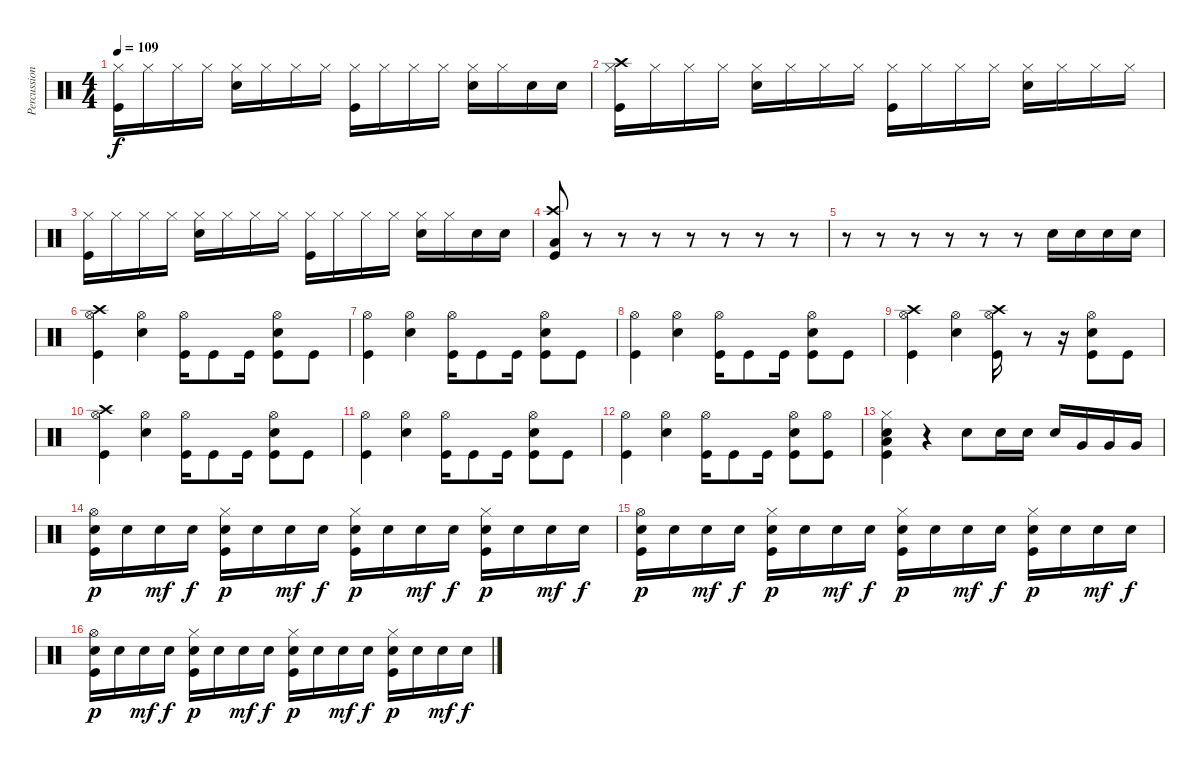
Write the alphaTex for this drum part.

\track ("Percussion" "Percussion") {instrument percussion}
\staff {score}
\articulation defaults
\ts (4 4)
\tempo 109
\clef neutral
\ks c
("Hi-Hat (closed)" "Kick (hit)").16{dy f} "Hi-Hat (closed)".16 "Hi-Hat (closed)".16 "Hi-Hat (closed)".16 ("Hi-Hat (closed)" "Electric Snare (hit)").16 "Hi-Hat (closed)".16 "Hi-Hat (closed)".16 "Hi-Hat (closed)".16 ("Hi-Hat (closed)" "Kick (hit)").16 "Hi-Hat (closed)".16 "Hi-Hat (closed)".16 "Hi-Hat (closed)".16 ("Hi-Hat (closed)" "Electric Snare (hit)").16 "Hi-Hat (closed)".16 "Electric Snare (hit)".16 "Electric Snare (hit)".16 |
("Crash high (hit)" "Hi-Hat (closed)" "Kick (hit)").16 "Hi-Hat (closed)".16 "Hi-Hat (closed)".16 "Hi-Hat (closed)".16 ("Hi-Hat (closed)" "Electric Snare (hit)").16 "Hi-Hat (closed)".16 "Hi-Hat (closed)".16 "Hi-Hat (closed)".16 ("Hi-Hat (closed)" "Kick (hit)").16 "Hi-Hat (closed)".16 "Hi-Hat (closed)".16 "Hi-Hat (closed)".16 ("Hi-Hat (closed)" "Electric Snare (hit)").16 "Hi-Hat (closed)".16 "Hi-Hat (closed)".16 "Hi-Hat (closed)".16 |
("Hi-Hat (closed)" "Kick (hit)").16 "Hi-Hat (closed)".16 "Hi-Hat (closed)".16 "Hi-Hat (closed)".16 ("Hi-Hat (closed)" "Electric Snare (hit)").16 "Hi-Hat (closed)".16 "Hi-Hat (closed)".16 "Hi-Hat (closed)".16 ("Hi-Hat (closed)" "Kick (hit)").16 "Hi-Hat (closed)".16 "Hi-Hat (closed)".16 "Hi-Hat (closed)".16 ("Hi-Hat (closed)" "Electric Snare (hit)").16 "Hi-Hat (closed)".16 "Electric Snare (hit)".16 "Electric Snare (hit)".16 |
("Crash high (hit)" "Low Floor Tom (hit)" "Kick (hit)").8 r.8 r.8 r.8 r.8 r.8 r.8 r.8 |
r.8 r.8 r.8 r.8 r.8 r.8 "Electric Snare (hit)".16 "Electric Snare (hit)".16 "Electric Snare (hit)".16 "Electric Snare (hit)".16 |
("Crash high (hit)" "Hi-Hat (open)" "Kick (hit)").4 ("Hi-Hat (open)" "Electric Snare (hit)").4 ("Hi-Hat (open)" "Kick (hit)").16 "Kick (hit)".8 "Kick (hit)".16 ("Hi-Hat (open)" "Electric Snare (hit)" "Kick (hit)").8 "Kick (hit)".8 |
("Hi-Hat (open)" "Kick (hit)").4 ("Hi-Hat (open)" "Electric Snare (hit)").4 ("Hi-Hat (open)" "Kick (hit)").16 "Kick (hit)".8 "Kick (hit)".16 ("Hi-Hat (open)" "Electric Snare (hit)" "Kick (hit)").8 "Kick (hit)".8 |
("Hi-Hat (open)" "Kick (hit)").4 ("Hi-Hat (open)" "Electric Snare (hit)").4 ("Hi-Hat (open)" "Kick (hit)").16 "Kick (hit)".8 "Kick (hit)".16 ("Hi-Hat (open)" "Electric Snare (hit)" "Kick (hit)").8 "Kick (hit)".8 |
("Crash high (hit)" "Hi-Hat (open)" "Kick (hit)").4 ("Hi-Hat (open)" "Electric Snare (hit)").4 ("Hi-Hat (open)" "Crash high (hit)" "Kick (hit)").16 r.8 r.16 ("Hi-Hat (open)" "Electric Snare (hit)" "Kick (hit)").8 "Kick (hit)".8 |
("Crash high (hit)" "Hi-Hat (open)" "Kick (hit)").4 ("Hi-Hat (open)" "Electric Snare (hit)").4 ("Hi-Hat (open)" "Kick (hit)").16 "Kick (hit)".8 "Kick (hit)".16 ("Hi-Hat (open)" "Electric Snare (hit)" "Kick (hit)").8 "Kick (hit)".8 |
("Hi-Hat (open)" "Kick (hit)").4 ("Hi-Hat (open)" "Electric Snare (hit)").4 ("Hi-Hat (open)" "Kick (hit)").16 "Kick (hit)".8 "Kick (hit)".16 ("Hi-Hat (open)" "Electric Snare (hit)" "Kick (hit)").8 "Kick (hit)".8 |
("Hi-Hat (open)" "Kick (hit)").4 ("Hi-Hat (open)" "Electric Snare (hit)").4 ("Hi-Hat (open)" "Kick (hit)").16 "Kick (hit)".8 "Kick (hit)".16 ("Hi-Hat (open)" "Electric Snare (hit)" "Kick (hit)").8 ("Hi-Hat (open)" "Kick (hit)").8 |
("Hi-Hat (closed)" "Electric Snare (hit)" "Kick (hit)" "Low Floor Tom (hit)").4 r.4 "Electric Snare (hit)".8 "Electric Snare (hit)".16 "Electric Snare (hit)".16 "Electric Snare (hit)".16 "Very Low Tom (hit)".16 "Very Low Tom (hit)".16 "Very Low Tom (hit)".16 |
("Hi-Hat (open)" "Electric Snare (hit)" "Kick (hit)").16{dy p} "Electric Snare (hit)".16 "Electric Snare (hit)".16{dy mf} "Electric Snare (hit)".16{dy f} ("Hi-Hat (closed)" "Electric Snare (hit)" "Kick (hit)").16{dy p} "Electric Snare (hit)".16 "Electric Snare (hit)".16{dy mf} "Electric Snare (hit)".16{dy f} ("Hi-Hat (closed)" "Electric Snare (hit)" "Kick (hit)").16{dy p} "Electric Snare (hit)".16 "Electric Snare (hit)".16{dy mf} "Electric Snare (hit)".16{dy f} ("Hi-Hat (closed)" "Electric Snare (hit)" "Kick (hit)").16{dy p} "Electric Snare (hit)".16 "Electric Snare (hit)".16{dy mf} "Electric Snare (hit)".16{dy f} |
("Hi-Hat (open)" "Electric Snare (hit)" "Kick (hit)").16{dy p} "Electric Snare (hit)".16 "Electric Snare (hit)".16{dy mf} "Electric Snare (hit)".16{dy f} ("Hi-Hat (closed)" "Electric Snare (hit)" "Kick (hit)").16{dy p} "Electric Snare (hit)".16 "Electric Snare (hit)".16{dy mf} "Electric Snare (hit)".16{dy f} ("Hi-Hat (closed)" "Electric Snare (hit)" "Kick (hit)").16{dy p} "Electric Snare (hit)".16 "Electric Snare (hit)".16{dy mf} "Electric Snare (hit)".16{dy f} ("Hi-Hat (closed)" "Electric Snare (hit)" "Kick (hit)").16{dy p} "Electric Snare (hit)".16 "Electric Snare (hit)".16{dy mf} "Electric Snare (hit)".16{dy f} |
("Hi-Hat (open)" "Electric Snare (hit)" "Kick (hit)").16{dy p} "Electric Snare (hit)".16 "Electric Snare (hit)".16{dy mf} "Electric Snare (hit)".16{dy f} ("Hi-Hat (closed)" "Electric Snare (hit)" "Kick (hit)").16{dy p} "Electric Snare (hit)".16 "Electric Snare (hit)".16{dy mf} "Electric Snare (hit)".16{dy f} ("Hi-Hat (closed)" "Electric Snare (hit)" "Kick (hit)").16{dy p} "Electric Snare (hit)".16 "Electric Snare (hit)".16{dy mf} "Electric Snare (hit)".16{dy f} ("Hi-Hat (closed)" "Electric Snare (hit)" "Kick (hit)").16{dy p} "Electric Snare (hit)".16 "Electric Snare (hit)".16{dy mf} "Electric Snare (hit)".16{dy f}
